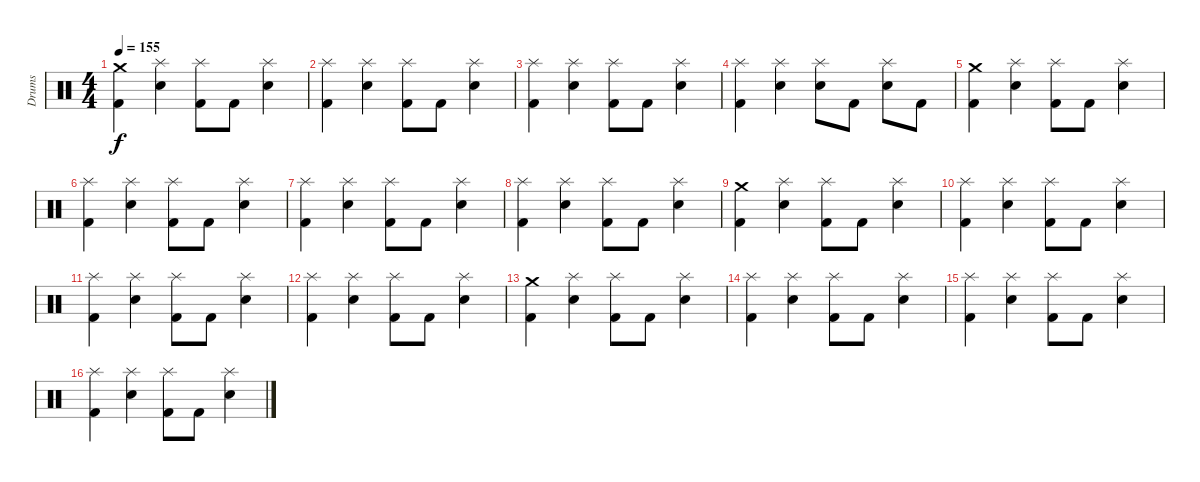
\track ("Drums" "Drums") {instrument percussion}
\staff {score}
\articulation defaults
\ts (4 4)
\tempo 155
\clef neutral
\ks c
("Kick (hit) 2" "Crash medium (hit)").4{dy f} ("Splash (hit)" "Electric Snare (hit)").4 ("Kick (hit) 2" "Splash (hit)").8 "Kick (hit) 2".8 ("Splash (hit)" "Electric Snare (hit)").4 |
("Kick (hit) 2" "Splash (hit)").4 ("Splash (hit)" "Electric Snare (hit)").4 ("Kick (hit) 2" "Splash (hit)").8 "Kick (hit) 2".8 ("Splash (hit)" "Electric Snare (hit)").4 |
("Kick (hit) 2" "Splash (hit)").4 ("Electric Snare (hit)" "Splash (hit)").4 ("Kick (hit) 2" "Splash (hit)").8 "Kick (hit) 2".8 ("Electric Snare (hit)" "Splash (hit)").4 |
("Kick (hit) 2" "Splash (hit)").4 ("Electric Snare (hit)" "Splash (hit)").4 ("Snare (hit) 2" "Splash (hit)").8 "Kick (hit) 2".8 ("Electric Snare (hit)" "Splash (hit)").8 "Kick (hit) 2".8 |
("Kick (hit) 2" "Crash medium (hit)").4 ("Splash (hit)" "Electric Snare (hit)").4 ("Kick (hit) 2" "Splash (hit)").8 "Kick (hit) 2".8 ("Splash (hit)" "Electric Snare (hit)").4 |
("Kick (hit) 2" "Splash (hit)").4 ("Splash (hit)" "Electric Snare (hit)").4 ("Kick (hit) 2" "Splash (hit)").8 "Kick (hit) 2".8 ("Splash (hit)" "Electric Snare (hit)").4 |
("Kick (hit) 2" "Splash (hit)").4 ("Electric Snare (hit)" "Splash (hit)").4 ("Kick (hit) 2" "Splash (hit)").8 "Kick (hit) 2".8 ("Electric Snare (hit)" "Splash (hit)").4 |
("Kick (hit) 2" "Splash (hit)").4 ("Electric Snare (hit)" "Splash (hit)").4 ("Kick (hit) 2" "Splash (hit)").8 "Kick (hit) 2".8 ("Electric Snare (hit)" "Splash (hit)").4 |
("Kick (hit) 2" "Crash medium (hit)").4 ("Splash (hit)" "Electric Snare (hit)").4 ("Kick (hit) 2" "Splash (hit)").8 "Kick (hit) 2".8 ("Splash (hit)" "Electric Snare (hit)").4 |
("Kick (hit) 2" "Splash (hit)").4 ("Splash (hit)" "Electric Snare (hit)").4 ("Kick (hit) 2" "Splash (hit)").8 "Kick (hit) 2".8 ("Splash (hit)" "Electric Snare (hit)").4 |
("Kick (hit) 2" "Splash (hit)").4 ("Electric Snare (hit)" "Splash (hit)").4 ("Kick (hit) 2" "Splash (hit)").8 "Kick (hit) 2".8 ("Electric Snare (hit)" "Splash (hit)").4 |
("Kick (hit) 2" "Splash (hit)").4 ("Electric Snare (hit)" "Splash (hit)").4 ("Kick (hit) 2" "Splash (hit)").8 "Kick (hit) 2".8 ("Electric Snare (hit)" "Splash (hit)").4 |
("Kick (hit) 2" "Crash medium (hit)").4 ("Splash (hit)" "Electric Snare (hit)").4 ("Kick (hit) 2" "Splash (hit)").8 "Kick (hit) 2".8 ("Splash (hit)" "Electric Snare (hit)").4 |
("Kick (hit) 2" "Splash (hit)").4 ("Splash (hit)" "Electric Snare (hit)").4 ("Kick (hit) 2" "Splash (hit)").8 "Kick (hit) 2".8 ("Splash (hit)" "Electric Snare (hit)").4 |
("Kick (hit) 2" "Splash (hit)").4 ("Electric Snare (hit)" "Splash (hit)").4 ("Kick (hit) 2" "Splash (hit)").8 "Kick (hit) 2".8 ("Electric Snare (hit)" "Splash (hit)").4 |
("Kick (hit) 2" "Splash (hit)").4 ("Electric Snare (hit)" "Splash (hit)").4 ("Kick (hit) 2" "Splash (hit)").8 "Kick (hit) 2".8 ("Electric Snare (hit)" "Splash (hit)").4
